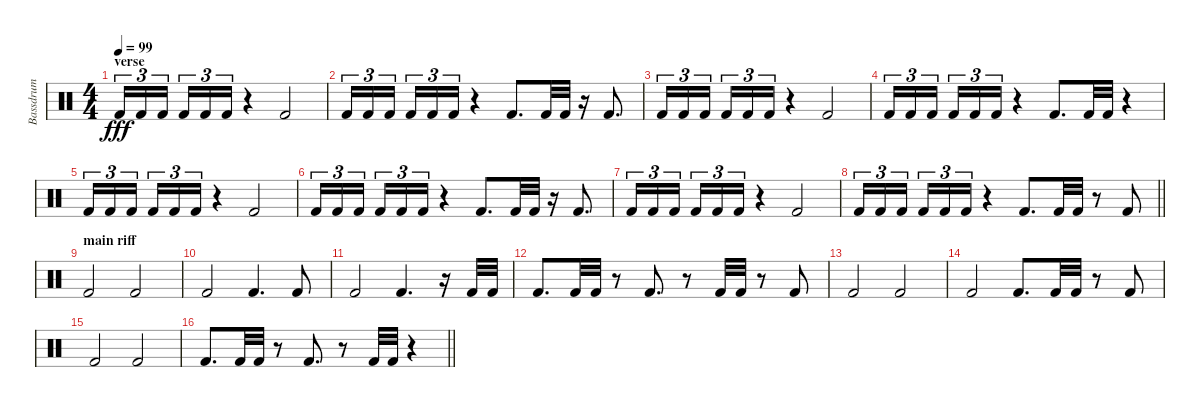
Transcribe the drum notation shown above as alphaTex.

\track ("Bassdrum" "Bassdrum") {instrument percussion}
\staff {score}
\articulation defaults
\ts (4 4)
\section ("" "verse")
\tempo 99
\clef neutral
\ks c "Kick (hit) 2".16{tu (3 2) dy fff} "Kick (hit) 2".16{tu (3 2)} "Kick (hit) 2".16{tu (3 2) beam splitsecondary} "Kick (hit) 2".16{tu (3 2)} "Kick (hit) 2".16{tu (3 2)} "Kick (hit) 2".16{tu (3 2)}
r.4 "Kick (hit) 2".2 |
"Kick (hit) 2".16{tu (3 2)} "Kick (hit) 2".16{tu (3 2)} "Kick (hit) 2".16{tu (3 2) beam splitsecondary} "Kick (hit) 2".16{tu (3 2)} "Kick (hit) 2".16{tu (3 2)} "Kick (hit) 2".16{tu (3 2)} r.4 "Kick (hit) 2".8{d} "Kick (hit) 2".32 "Kick (hit) 2".32 r.16 "Kick (hit) 2".8{d} |
"Kick (hit) 2".16{tu (3 2)} "Kick (hit) 2".16{tu (3 2)} "Kick (hit) 2".16{tu (3 2) beam splitsecondary} "Kick (hit) 2".16{tu (3 2)} "Kick (hit) 2".16{tu (3 2)} "Kick (hit) 2".16{tu (3 2)} r.4 "Kick (hit) 2".2 |
"Kick (hit) 2".16{tu (3 2)} "Kick (hit) 2".16{tu (3 2)} "Kick (hit) 2".16{tu (3 2) beam splitsecondary} "Kick (hit) 2".16{tu (3 2)} "Kick (hit) 2".16{tu (3 2)} "Kick (hit) 2".16{tu (3 2)} r.4 "Kick (hit) 2".8{d} "Kick (hit) 2".32 "Kick (hit) 2".32 r.4 |
"Kick (hit) 2".16{tu (3 2)} "Kick (hit) 2".16{tu (3 2)} "Kick (hit) 2".16{tu (3 2) beam splitsecondary} "Kick (hit) 2".16{tu (3 2)} "Kick (hit) 2".16{tu (3 2)} "Kick (hit) 2".16{tu (3 2)} r.4 "Kick (hit) 2".2 |
"Kick (hit) 2".16{tu (3 2)} "Kick (hit) 2".16{tu (3 2)} "Kick (hit) 2".16{tu (3 2) beam splitsecondary} "Kick (hit) 2".16{tu (3 2)} "Kick (hit) 2".16{tu (3 2)} "Kick (hit) 2".16{tu (3 2)} r.4 "Kick (hit) 2".8{d} "Kick (hit) 2".32 "Kick (hit) 2".32 r.16 "Kick (hit) 2".8{d} |
"Kick (hit) 2".16{tu (3 2)} "Kick (hit) 2".16{tu (3 2)} "Kick (hit) 2".16{tu (3 2) beam splitsecondary} "Kick (hit) 2".16{tu (3 2)} "Kick (hit) 2".16{tu (3 2)} "Kick (hit) 2".16{tu (3 2)} r.4 "Kick (hit) 2".2 |
\barLineRight lightlight "Kick (hit) 2".16{tu (3 2)} "Kick (hit) 2".16{tu (3 2)} "Kick (hit) 2".16{tu (3 2) beam splitsecondary} "Kick (hit) 2".16{tu (3 2)} "Kick (hit) 2".16{tu (3 2)} "Kick (hit) 2".16{tu (3 2)}
r.4 "Kick (hit) 2".8{d} "Kick (hit) 2".32 "Kick (hit) 2".32 r.8 "Kick (hit) 2".8 |
\section ("" "main riff")
"Kick (hit) 2".2 "Kick (hit) 2".2 |
"Kick (hit) 2".2 "Kick (hit) 2".4{d} "Kick (hit) 2".8 |
"Kick (hit) 2".2 "Kick (hit) 2".4{d} r.16 "Kick (hit) 2".32 "Kick (hit) 2".32 |
"Kick (hit) 2".8{d} "Kick (hit) 2".32 "Kick (hit) 2".32 r.8 "Kick (hit) 2".8{d} r.8 "Kick (hit) 2".32 "Kick (hit) 2".32 r.8 "Kick (hit) 2".8 |
"Kick (hit) 2".2 "Kick (hit) 2".2 |
"Kick (hit) 2".2 "Kick (hit) 2".8{d} "Kick (hit) 2".32 "Kick (hit) 2".32 r.8 "Kick (hit) 2".8 |
"Kick (hit) 2".2 "Kick (hit) 2".2 |
\barLineRight lightlight "Kick (hit) 2".8{d} "Kick (hit) 2".32 "Kick (hit) 2".32
r.8 "Kick (hit) 2".8{d} r.8 "Kick (hit) 2".32 "Kick (hit) 2".32 r.4
